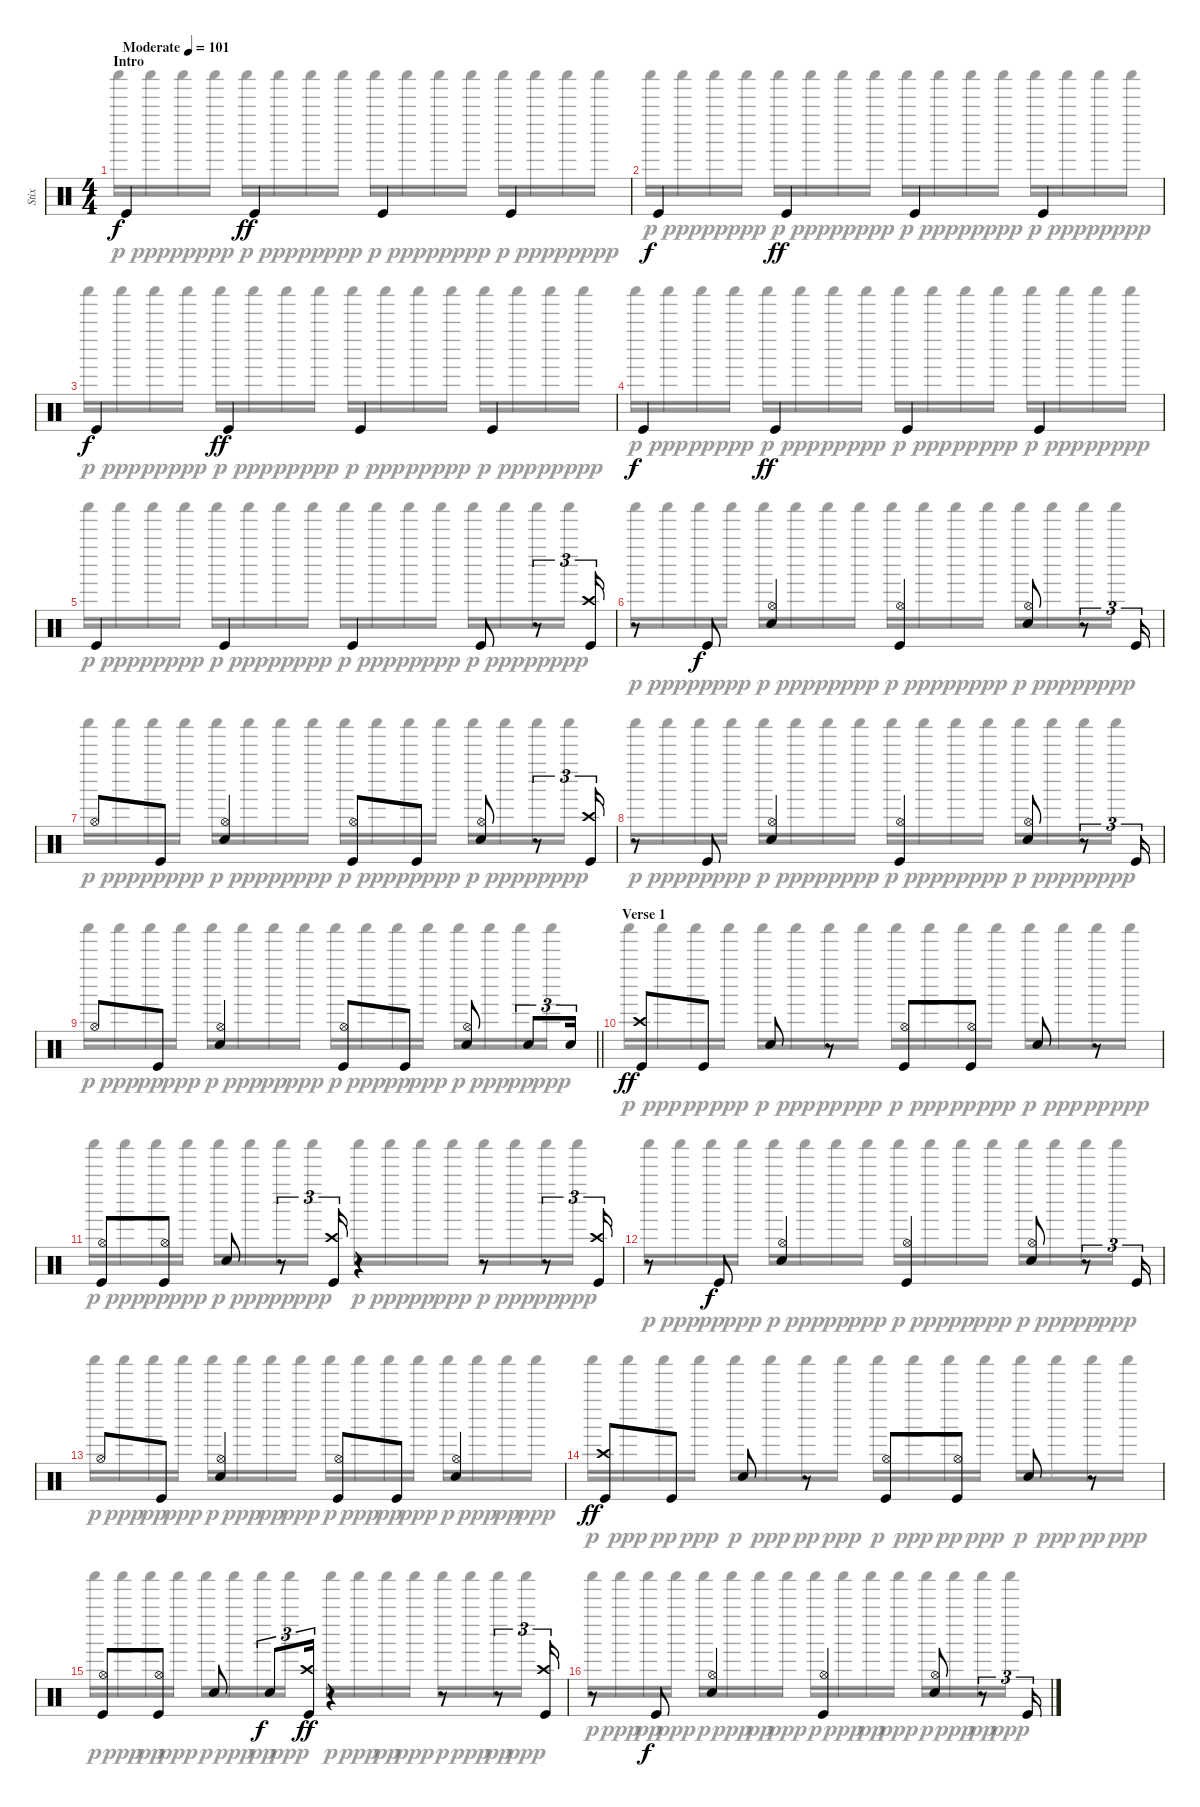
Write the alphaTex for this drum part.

\track ("Stix" "Stix") {instrument percussion}
\staff {score}
\articulation defaults
\voice
\ts (4 4)
\section ("" "Intro")
\tempo (101 "Moderate")
\clef neutral
\ks c "Kick (hit)".4{dy f} "Kick (hit)".4{dy ff} "Kick (hit)".4 "Kick (hit)".4
|
"Kick (hit)".4{dy f} "Kick (hit)".4{dy ff} "Kick (hit)".4 "Kick (hit)".4 |
"Kick (hit)".4{dy f} "Kick (hit)".4{dy ff} "Kick (hit)".4 "Kick (hit)".4 |
"Kick (hit)".4{dy f} "Kick (hit)".4{dy ff} "Kick (hit)".4 "Kick (hit)".4 |
"Kick (hit)".4 "Kick (hit)".4 "Kick (hit)".4 "Kick (hit)".8 r.8{tu (3 2)} ("Crash high (hit)" "Kick (hit)").16{tu (3 2)} |
r.8 "Kick (hit)".8{dy f} ("Hi-Hat (open)" "Electric Snare (hit)").4 ("Hi-Hat (open)" "Kick (hit)").4 ("Hi-Hat (open)" "Electric Snare (hit)").8 r.8{tu (3 2)} "Kick (hit)".16{tu (3 2)} |
"Hi-Hat (open)".8 "Kick (hit)".8 ("Hi-Hat (open)" "Electric Snare (hit)").4 ("Hi-Hat (open)" "Kick (hit)").8 "Kick (hit)".8 ("Hi-Hat (open)" "Electric Snare (hit)").8 r.8{tu (3 2)} ("Crash high (hit)" "Kick (hit)").16{tu (3 2)} |
r.8 "Kick (hit)".8 ("Hi-Hat (open)" "Electric Snare (hit)").4 ("Hi-Hat (open)" "Kick (hit)").4 ("Hi-Hat (open)" "Electric Snare (hit)").8 r.8{tu (3 2)} "Kick (hit)".16{tu (3 2)} |
\barLineRight lightlight "Hi-Hat (open)".8 "Kick (hit)".8
("Hi-Hat (open)" "Electric Snare (hit)").4 ("Hi-Hat (open)" "Kick (hit)").8 "Kick (hit)".8 ("Hi-Hat (open)" "Electric Snare (hit)").8 "Electric Snare (hit)".8{tu (3 2)} "Electric Snare (hit)".16{tu (3 2)} |
\section ("" "Verse 1")
("Crash high (hit)" "Kick (hit)").8{dy ff} "Kick (hit)".8 "Electric Snare (hit)".8 r.8 ("Hi-Hat (open)" "Kick (hit)").8 ("Hi-Hat (open)" "Kick (hit)").8 "Electric Snare (hit)".8 r.8 |
("Hi-Hat (open)" "Kick (hit)").8 ("Hi-Hat (open)" "Kick (hit)").8 "Electric Snare (hit)".8 r.8{tu (3 2)} ("Crash high (hit)" "Kick (hit)").16{tu (3 2)} r.4 r.8 r.8{tu (3 2)} ("Crash high (hit)" "Kick (hit)").16{tu (3 2)} |
r.8 "Kick (hit)".8{dy f} ("Hi-Hat (open)" "Electric Snare (hit)").4 ("Hi-Hat (open)" "Kick (hit)").4 ("Hi-Hat (open)" "Electric Snare (hit)").8 r.8{tu (3 2)} "Kick (hit)".16{tu (3 2)} |
"Hi-Hat (open)".8 "Kick (hit)".8 ("Hi-Hat (open)" "Electric Snare (hit)").4 ("Hi-Hat (open)" "Kick (hit)").8 "Kick (hit)".8 ("Hi-Hat (open)" "Electric Snare (hit)").4 |
("Crash high (hit)" "Kick (hit)").8{dy ff} "Kick (hit)".8 "Electric Snare (hit)".8 r.8 ("Hi-Hat (open)" "Kick (hit)").8 ("Hi-Hat (open)" "Kick (hit)").8 "Electric Snare (hit)".8 r.8 |
("Hi-Hat (open)" "Kick (hit)").8 ("Hi-Hat (open)" "Kick (hit)").8 "Electric Snare (hit)".8 "Electric Snare (hit)".8{tu (3 2) dy f} ("Crash high (hit)" "Kick (hit)").16{tu (3 2) dy ff} r.4 r.8 r.8{tu (3 2)} ("Crash high (hit)" "Kick (hit)").16{tu (3 2)} |
r.8 "Kick (hit)".8{dy f} ("Hi-Hat (open)" "Electric Snare (hit)").4 ("Hi-Hat (open)" "Kick (hit)").4 ("Hi-Hat (open)" "Electric Snare (hit)").8 r.8{tu (3 2)} "Kick (hit)".16{tu (3 2)}
\voice
\clef neutral
\ottava regular
\simile none
\ks c "Shaker (hit)".16{dy p} "Shaker (hit)".16{dy ppp} "Shaker (hit)".16{dy pp} "Shaker (hit)".16{dy ppp} "Shaker (hit)".16{dy p} "Shaker (hit)".16{dy ppp} "Shaker (hit)".16{dy pp} "Shaker (hit)".16{dy ppp} "Shaker (hit)".16{dy p} "Shaker (hit)".16{dy ppp} "Shaker (hit)".16{dy pp} "Shaker (hit)".16{dy ppp} "Shaker (hit)".16{dy p} "Shaker (hit)".16{dy ppp} "Shaker (hit)".16{dy pp} "Shaker (hit)".16{dy ppp}
|
"Shaker (hit)".16{dy p} "Shaker (hit)".16{dy ppp} "Shaker (hit)".16{dy pp} "Shaker (hit)".16{dy ppp} "Shaker (hit)".16{dy p} "Shaker (hit)".16{dy ppp} "Shaker (hit)".16{dy pp} "Shaker (hit)".16{dy ppp} "Shaker (hit)".16{dy p} "Shaker (hit)".16{dy ppp} "Shaker (hit)".16{dy pp} "Shaker (hit)".16{dy ppp} "Shaker (hit)".16{dy p} "Shaker (hit)".16{dy ppp} "Shaker (hit)".16{dy pp} "Shaker (hit)".16{dy ppp} |
"Shaker (hit)".16{dy p} "Shaker (hit)".16{dy ppp} "Shaker (hit)".16{dy pp} "Shaker (hit)".16{dy ppp} "Shaker (hit)".16{dy p} "Shaker (hit)".16{dy ppp} "Shaker (hit)".16{dy pp} "Shaker (hit)".16{dy ppp} "Shaker (hit)".16{dy p} "Shaker (hit)".16{dy ppp} "Shaker (hit)".16{dy pp} "Shaker (hit)".16{dy ppp} "Shaker (hit)".16{dy p} "Shaker (hit)".16{dy ppp} "Shaker (hit)".16{dy pp} "Shaker (hit)".16{dy ppp} |
"Shaker (hit)".16{dy p} "Shaker (hit)".16{dy ppp} "Shaker (hit)".16{dy pp} "Shaker (hit)".16{dy ppp} "Shaker (hit)".16{dy p} "Shaker (hit)".16{dy ppp} "Shaker (hit)".16{dy pp} "Shaker (hit)".16{dy ppp} "Shaker (hit)".16{dy p} "Shaker (hit)".16{dy ppp} "Shaker (hit)".16{dy pp} "Shaker (hit)".16{dy ppp} "Shaker (hit)".16{dy p} "Shaker (hit)".16{dy ppp} "Shaker (hit)".16{dy pp} "Shaker (hit)".16{dy ppp} |
"Shaker (hit)".16{dy p} "Shaker (hit)".16{dy ppp} "Shaker (hit)".16{dy pp} "Shaker (hit)".16{dy ppp} "Shaker (hit)".16{dy p} "Shaker (hit)".16{dy ppp} "Shaker (hit)".16{dy pp} "Shaker (hit)".16{dy ppp} "Shaker (hit)".16{dy p} "Shaker (hit)".16{dy ppp} "Shaker (hit)".16{dy pp} "Shaker (hit)".16{dy ppp} "Shaker (hit)".16{dy p} "Shaker (hit)".16{dy ppp} "Shaker (hit)".16{dy pp} "Shaker (hit)".16{dy ppp} |
"Shaker (hit)".16{dy p} "Shaker (hit)".16{dy ppp} "Shaker (hit)".16{dy pp} "Shaker (hit)".16{dy ppp} "Shaker (hit)".16{dy p} "Shaker (hit)".16{dy ppp} "Shaker (hit)".16{dy pp} "Shaker (hit)".16{dy ppp} "Shaker (hit)".16{dy p} "Shaker (hit)".16{dy ppp} "Shaker (hit)".16{dy pp} "Shaker (hit)".16{dy ppp} "Shaker (hit)".16{dy p} "Shaker (hit)".16{dy ppp} "Shaker (hit)".16{dy pp} "Shaker (hit)".16{dy ppp} |
"Shaker (hit)".16{dy p} "Shaker (hit)".16{dy ppp} "Shaker (hit)".16{dy pp} "Shaker (hit)".16{dy ppp} "Shaker (hit)".16{dy p} "Shaker (hit)".16{dy ppp} "Shaker (hit)".16{dy pp} "Shaker (hit)".16{dy ppp} "Shaker (hit)".16{dy p} "Shaker (hit)".16{dy ppp} "Shaker (hit)".16{dy pp} "Shaker (hit)".16{dy ppp} "Shaker (hit)".16{dy p} "Shaker (hit)".16{dy ppp} "Shaker (hit)".16{dy pp} "Shaker (hit)".16{dy ppp} |
"Shaker (hit)".16{dy p} "Shaker (hit)".16{dy ppp} "Shaker (hit)".16{dy pp} "Shaker (hit)".16{dy ppp} "Shaker (hit)".16{dy p} "Shaker (hit)".16{dy ppp} "Shaker (hit)".16{dy pp} "Shaker (hit)".16{dy ppp} "Shaker (hit)".16{dy p} "Shaker (hit)".16{dy ppp} "Shaker (hit)".16{dy pp} "Shaker (hit)".16{dy ppp} "Shaker (hit)".16{dy p} "Shaker (hit)".16{dy ppp} "Shaker (hit)".16{dy pp} "Shaker (hit)".16{dy ppp} |
\barLineRight lightlight "Shaker (hit)".16{dy p} "Shaker (hit)".16{dy ppp} "Shaker (hit)".16{dy pp} "Shaker (hit)".16{dy ppp} "Shaker (hit)".16{dy p} "Shaker (hit)".16{dy ppp} "Shaker (hit)".16{dy pp} "Shaker (hit)".16{dy ppp} "Shaker (hit)".16{dy p} "Shaker (hit)".16{dy ppp} "Shaker (hit)".16{dy pp} "Shaker (hit)".16{dy ppp} "Shaker (hit)".16{dy p} "Shaker (hit)".16{dy ppp} "Shaker (hit)".16{dy pp} "Shaker (hit)".16{dy ppp}
|
"Shaker (hit)".16{dy p} "Shaker (hit)".16{dy ppp} "Shaker (hit)".16{dy pp} "Shaker (hit)".16{dy ppp} "Shaker (hit)".16{dy p} "Shaker (hit)".16{dy ppp} "Shaker (hit)".16{dy pp} "Shaker (hit)".16{dy ppp} "Shaker (hit)".16{dy p} "Shaker (hit)".16{dy ppp} "Shaker (hit)".16{dy pp} "Shaker (hit)".16{dy ppp} "Shaker (hit)".16{dy p} "Shaker (hit)".16{dy ppp} "Shaker (hit)".16{dy pp} "Shaker (hit)".16{dy ppp} |
"Shaker (hit)".16{dy p} "Shaker (hit)".16{dy ppp} "Shaker (hit)".16{dy pp} "Shaker (hit)".16{dy ppp} "Shaker (hit)".16{dy p} "Shaker (hit)".16{dy ppp} "Shaker (hit)".16{dy pp} "Shaker (hit)".16{dy ppp} "Shaker (hit)".16{dy p} "Shaker (hit)".16{dy ppp} "Shaker (hit)".16{dy pp} "Shaker (hit)".16{dy ppp} "Shaker (hit)".16{dy p} "Shaker (hit)".16{dy ppp} "Shaker (hit)".16{dy pp} "Shaker (hit)".16{dy ppp} |
"Shaker (hit)".16{dy p} "Shaker (hit)".16{dy ppp} "Shaker (hit)".16{dy pp} "Shaker (hit)".16{dy ppp} "Shaker (hit)".16{dy p} "Shaker (hit)".16{dy ppp} "Shaker (hit)".16{dy pp} "Shaker (hit)".16{dy ppp} "Shaker (hit)".16{dy p} "Shaker (hit)".16{dy ppp} "Shaker (hit)".16{dy pp} "Shaker (hit)".16{dy ppp} "Shaker (hit)".16{dy p} "Shaker (hit)".16{dy ppp} "Shaker (hit)".16{dy pp} "Shaker (hit)".16{dy ppp} |
"Shaker (hit)".16{dy p} "Shaker (hit)".16{dy ppp} "Shaker (hit)".16{dy pp} "Shaker (hit)".16{dy ppp} "Shaker (hit)".16{dy p} "Shaker (hit)".16{dy ppp} "Shaker (hit)".16{dy pp} "Shaker (hit)".16{dy ppp} "Shaker (hit)".16{dy p} "Shaker (hit)".16{dy ppp} "Shaker (hit)".16{dy pp} "Shaker (hit)".16{dy ppp} "Shaker (hit)".16{dy p} "Shaker (hit)".16{dy ppp} "Shaker (hit)".16{dy pp} "Shaker (hit)".16{dy ppp} |
"Shaker (hit)".16{dy p} "Shaker (hit)".16{dy ppp} "Shaker (hit)".16{dy pp} "Shaker (hit)".16{dy ppp} "Shaker (hit)".16{dy p} "Shaker (hit)".16{dy ppp} "Shaker (hit)".16{dy pp} "Shaker (hit)".16{dy ppp} "Shaker (hit)".16{dy p} "Shaker (hit)".16{dy ppp} "Shaker (hit)".16{dy pp} "Shaker (hit)".16{dy ppp} "Shaker (hit)".16{dy p} "Shaker (hit)".16{dy ppp} "Shaker (hit)".16{dy pp} "Shaker (hit)".16{dy ppp} |
"Shaker (hit)".16{dy p} "Shaker (hit)".16{dy ppp} "Shaker (hit)".16{dy pp} "Shaker (hit)".16{dy ppp} "Shaker (hit)".16{dy p} "Shaker (hit)".16{dy ppp} "Shaker (hit)".16{dy pp} "Shaker (hit)".16{dy ppp} "Shaker (hit)".16{dy p} "Shaker (hit)".16{dy ppp} "Shaker (hit)".16{dy pp} "Shaker (hit)".16{dy ppp} "Shaker (hit)".16{dy p} "Shaker (hit)".16{dy ppp} "Shaker (hit)".16{dy pp} "Shaker (hit)".16{dy ppp} |
"Shaker (hit)".16{dy p} "Shaker (hit)".16{dy ppp} "Shaker (hit)".16{dy pp} "Shaker (hit)".16{dy ppp} "Shaker (hit)".16{dy p} "Shaker (hit)".16{dy ppp} "Shaker (hit)".16{dy pp} "Shaker (hit)".16{dy ppp} "Shaker (hit)".16{dy p} "Shaker (hit)".16{dy ppp} "Shaker (hit)".16{dy pp} "Shaker (hit)".16{dy ppp} "Shaker (hit)".16{dy p} "Shaker (hit)".16{dy ppp} "Shaker (hit)".16{dy pp} "Shaker (hit)".16{dy ppp}
